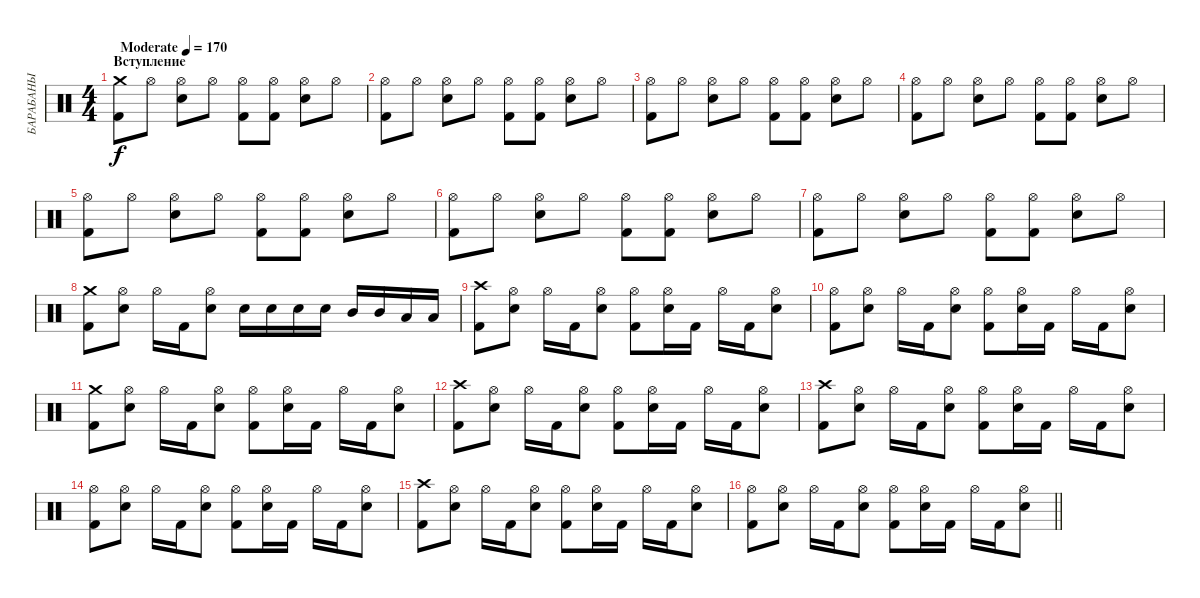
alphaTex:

\track ("БАРАБАНЫ" "БАРАБАНЫ") {instrument percussion}
\staff {score}
\articulation defaults
\ts (4 4)
\section ("" "Вступление")
\tempo (170 "Moderate")
\clef neutral
\ks c
("Kick (hit) 2" "Crash medium (hit)").8{dy f} "Hi-Hat (open)".8 ("Electric Snare (hit)" "Hi-Hat (open)").8 "Hi-Hat (open)".8 ("Kick (hit) 2" "Hi-Hat (open)").8 ("Kick (hit) 2" "Hi-Hat (open)").8 ("Electric Snare (hit)" "Hi-Hat (open)").8 "Hi-Hat (open)".8 |
("Kick (hit) 2" "Hi-Hat (open)").8 "Hi-Hat (open)".8 ("Electric Snare (hit)" "Hi-Hat (open)").8 "Hi-Hat (open)".8 ("Kick (hit) 2" "Hi-Hat (open)").8 ("Kick (hit) 2" "Hi-Hat (open)").8 ("Electric Snare (hit)" "Hi-Hat (open)").8 "Hi-Hat (open)".8 |
("Kick (hit) 2" "Hi-Hat (open)").8 "Hi-Hat (open)".8 ("Electric Snare (hit)" "Hi-Hat (open)").8 "Hi-Hat (open)".8 ("Kick (hit) 2" "Hi-Hat (open)").8 ("Kick (hit) 2" "Hi-Hat (open)").8 ("Electric Snare (hit)" "Hi-Hat (open)").8 "Hi-Hat (open)".8 |
("Kick (hit) 2" "Hi-Hat (open)").8 "Hi-Hat (open)".8 ("Electric Snare (hit)" "Hi-Hat (open)").8 "Hi-Hat (open)".8 ("Kick (hit) 2" "Hi-Hat (open)").8 ("Kick (hit) 2" "Hi-Hat (open)").8 ("Electric Snare (hit)" "Hi-Hat (open)").8 "Hi-Hat (open)".8 |
("Kick (hit) 2" "Hi-Hat (open)").8 "Hi-Hat (open)".8 ("Electric Snare (hit)" "Hi-Hat (open)").8 "Hi-Hat (open)".8 ("Kick (hit) 2" "Hi-Hat (open)").8 ("Kick (hit) 2" "Hi-Hat (open)").8 ("Electric Snare (hit)" "Hi-Hat (open)").8 "Hi-Hat (open)".8 |
("Kick (hit) 2" "Hi-Hat (open)").8 "Hi-Hat (open)".8 ("Electric Snare (hit)" "Hi-Hat (open)").8 "Hi-Hat (open)".8 ("Kick (hit) 2" "Hi-Hat (open)").8 ("Kick (hit) 2" "Hi-Hat (open)").8 ("Electric Snare (hit)" "Hi-Hat (open)").8 "Hi-Hat (open)".8 |
("Kick (hit) 2" "Hi-Hat (open)").8 "Hi-Hat (open)".8 ("Electric Snare (hit)" "Hi-Hat (open)").8 "Hi-Hat (open)".8 ("Kick (hit) 2" "Hi-Hat (open)").8 ("Kick (hit) 2" "Hi-Hat (open)").8 ("Electric Snare (hit)" "Hi-Hat (open)").8 "Hi-Hat (open)".8 |
("Kick (hit) 2" "Crash medium (hit)").8 ("Electric Snare (hit)" "Hi-Hat (open)").8 "Hi-Hat (open)".16 "Kick (hit) 2".16 ("Electric Snare (hit)" "Hi-Hat (open)").8 "Electric Snare (hit)".16 "Electric Snare (hit)".16 "Electric Snare (hit)".16 "Electric Snare (hit)".16 "Mid Tom (hit)".16 "Mid Tom (hit)".16 "Low Tom (hit)".16 "Low Tom (hit)".16 |
("Kick (hit) 2" "Crash high (hit)").8 ("Electric Snare (hit)" "Hi-Hat (open)").8 "Hi-Hat (open)".16 "Kick (hit) 2".16 ("Electric Snare (hit)" "Hi-Hat (open)").8 ("Kick (hit) 2" "Hi-Hat (open)").8 ("Electric Snare (hit)" "Hi-Hat (open)").16 "Kick (hit) 2".16 "Hi-Hat (open)".16 "Kick (hit) 2".16 ("Electric Snare (hit)" "Hi-Hat (open)").8 |
("Kick (hit) 2" "Hi-Hat (open)").8 ("Electric Snare (hit)" "Hi-Hat (open)").8 "Hi-Hat (open)".16 "Kick (hit) 2".16 ("Electric Snare (hit)" "Hi-Hat (open)").8 ("Kick (hit) 2" "Hi-Hat (open)").8 ("Electric Snare (hit)" "Hi-Hat (open)").16 "Kick (hit) 2".16 "Hi-Hat (open)".16 "Kick (hit) 2".16 ("Electric Snare (hit)" "Hi-Hat (open)").8 |
("Kick (hit) 2" "Crash medium (hit)").8 ("Electric Snare (hit)" "Hi-Hat (open)").8 "Hi-Hat (open)".16 "Kick (hit) 2".16 ("Electric Snare (hit)" "Hi-Hat (open)").8 ("Kick (hit) 2" "Hi-Hat (open)").8 ("Electric Snare (hit)" "Hi-Hat (open)").16 "Kick (hit) 2".16 "Hi-Hat (open)".16 "Kick (hit) 2".16 ("Electric Snare (hit)" "Hi-Hat (open)").8 |
("Kick (hit) 2" "Crash high (hit)").8 ("Electric Snare (hit)" "Hi-Hat (open)").8 "Hi-Hat (open)".16 "Kick (hit) 2".16 ("Electric Snare (hit)" "Hi-Hat (open)").8 ("Kick (hit) 2" "Hi-Hat (open)").8 ("Electric Snare (hit)" "Hi-Hat (open)").16 "Kick (hit) 2".16 "Hi-Hat (open)".16 "Kick (hit) 2".16 ("Electric Snare (hit)" "Hi-Hat (open)").8 |
("Kick (hit) 2" "Crash high (hit)").8 ("Electric Snare (hit)" "Hi-Hat (open)").8 "Hi-Hat (open)".16 "Kick (hit) 2".16 ("Electric Snare (hit)" "Hi-Hat (open)").8 ("Kick (hit) 2" "Hi-Hat (open)").8 ("Electric Snare (hit)" "Hi-Hat (open)").16 "Kick (hit) 2".16 "Hi-Hat (open)".16 "Kick (hit) 2".16 ("Electric Snare (hit)" "Hi-Hat (open)").8 |
("Kick (hit) 2" "Hi-Hat (open)").8 ("Electric Snare (hit)" "Hi-Hat (open)").8 "Hi-Hat (open)".16 "Kick (hit) 2".16 ("Electric Snare (hit)" "Hi-Hat (open)").8 ("Kick (hit) 2" "Hi-Hat (open)").8 ("Electric Snare (hit)" "Hi-Hat (open)").16 "Kick (hit) 2".16 "Hi-Hat (open)".16 "Kick (hit) 2".16 ("Electric Snare (hit)" "Hi-Hat (open)").8 |
("Kick (hit) 2" "Crash high (hit)").8 ("Electric Snare (hit)" "Hi-Hat (open)").8 "Hi-Hat (open)".16 "Kick (hit) 2".16 ("Electric Snare (hit)" "Hi-Hat (open)").8 ("Kick (hit) 2" "Hi-Hat (open)").8 ("Electric Snare (hit)" "Hi-Hat (open)").16 "Kick (hit) 2".16 "Hi-Hat (open)".16 "Kick (hit) 2".16 ("Electric Snare (hit)" "Hi-Hat (open)").8 |
\barLineRight lightlight
("Kick (hit) 2" "Hi-Hat (open)").8 ("Electric Snare (hit)" "Hi-Hat (open)").8 "Hi-Hat (open)".16 "Kick (hit) 2".16 ("Electric Snare (hit)" "Hi-Hat (open)").8 ("Kick (hit) 2" "Hi-Hat (open)").8 ("Electric Snare (hit)" "Hi-Hat (open)").16 "Kick (hit) 2".16 "Hi-Hat (open)".16 "Kick (hit) 2".16 ("Electric Snare (hit)" "Hi-Hat (open)").8
